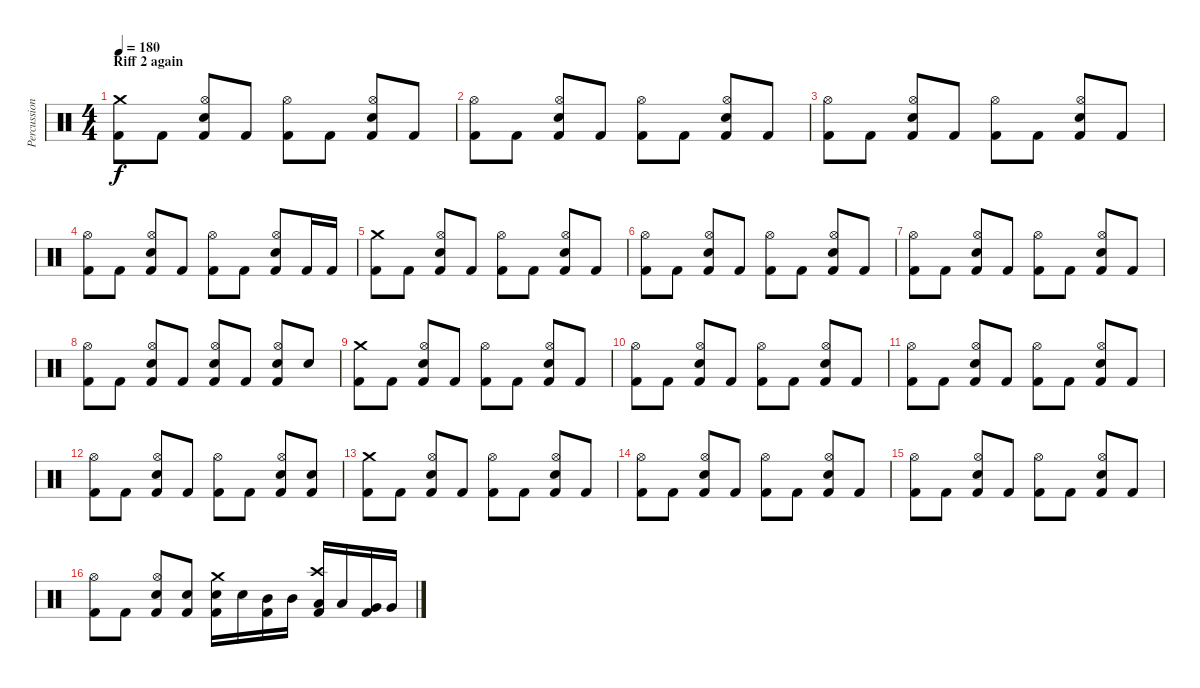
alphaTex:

\track ("Percussion" "Percussion") {instrument percussion}
\staff {score}
\articulation defaults
\ts (4 4)
\section ("" "Riff 2 again")
\tempo 180
\clef neutral
\ks c
("Crash medium (hit)" "Kick (hit) 2").8{dy f} "Kick (hit) 2".8 ("Kick (hit) 2" "Hi-Hat (open)" "Snare (hit) 2").8 "Kick (hit) 2".8 ("Hi-Hat (open)" "Kick (hit) 2").8 "Kick (hit) 2".8 ("Kick (hit) 2" "Hi-Hat (open)" "Snare (hit) 2").8 "Kick (hit) 2".8 |
("Hi-Hat (open)" "Kick (hit) 2").8 "Kick (hit) 2".8 ("Kick (hit) 2" "Hi-Hat (open)" "Snare (hit) 2").8 "Kick (hit) 2".8 ("Hi-Hat (open)" "Kick (hit) 2").8 "Kick (hit) 2".8 ("Kick (hit) 2" "Hi-Hat (open)" "Snare (hit) 2").8 "Kick (hit) 2".8 |
("Hi-Hat (open)" "Kick (hit) 2").8 "Kick (hit) 2".8 ("Kick (hit) 2" "Hi-Hat (open)" "Snare (hit) 2").8 "Kick (hit) 2".8 ("Hi-Hat (open)" "Kick (hit) 2").8 "Kick (hit) 2".8 ("Kick (hit) 2" "Hi-Hat (open)" "Snare (hit) 2").8 "Kick (hit) 2".8 |
("Hi-Hat (open)" "Kick (hit) 2").8 "Kick (hit) 2".8 ("Kick (hit) 2" "Hi-Hat (open)" "Snare (hit) 2").8 "Kick (hit) 2".8 ("Hi-Hat (open)" "Kick (hit) 2").8 "Kick (hit) 2".8 ("Kick (hit) 2" "Hi-Hat (open)" "Snare (hit) 2").8 "Kick (hit) 2".16 "Kick (hit) 2".16 |
("Crash medium (hit)" "Kick (hit) 2").8 "Kick (hit) 2".8 ("Kick (hit) 2" "Hi-Hat (open)" "Snare (hit) 2").8 "Kick (hit) 2".8 ("Hi-Hat (open)" "Kick (hit) 2").8 "Kick (hit) 2".8 ("Kick (hit) 2" "Hi-Hat (open)" "Snare (hit) 2").8 "Kick (hit) 2".8 |
("Hi-Hat (open)" "Kick (hit) 2").8 "Kick (hit) 2".8 ("Kick (hit) 2" "Hi-Hat (open)" "Snare (hit) 2").8 "Kick (hit) 2".8 ("Hi-Hat (open)" "Kick (hit) 2").8 "Kick (hit) 2".8 ("Kick (hit) 2" "Hi-Hat (open)" "Snare (hit) 2").8 "Kick (hit) 2".8 |
("Hi-Hat (open)" "Kick (hit) 2").8 "Kick (hit) 2".8 ("Kick (hit) 2" "Hi-Hat (open)" "Snare (hit) 2").8 "Kick (hit) 2".8 ("Hi-Hat (open)" "Kick (hit) 2").8 "Kick (hit) 2".8 ("Kick (hit) 2" "Hi-Hat (open)" "Snare (hit) 2").8 "Kick (hit) 2".8 |
("Hi-Hat (open)" "Kick (hit) 2").8 "Kick (hit) 2".8 ("Kick (hit) 2" "Hi-Hat (open)" "Snare (hit) 2").8 "Kick (hit) 2".8 ("Kick (hit) 2" "Hi-Hat (open)" "Snare (hit) 2").8 "Kick (hit) 2".8 ("Kick (hit) 2" "Hi-Hat (open)" "Snare (hit) 2").8 "Snare (hit) 2".8 |
("Crash medium (hit)" "Kick (hit) 2").8 "Kick (hit) 2".8 ("Kick (hit) 2" "Hi-Hat (open)" "Snare (hit) 2").8 "Kick (hit) 2".8 ("Hi-Hat (open)" "Kick (hit) 2").8 "Kick (hit) 2".8 ("Kick (hit) 2" "Hi-Hat (open)" "Snare (hit) 2").8 "Kick (hit) 2".8 |
("Hi-Hat (open)" "Kick (hit) 2").8 "Kick (hit) 2".8 ("Kick (hit) 2" "Hi-Hat (open)" "Snare (hit) 2").8 "Kick (hit) 2".8 ("Hi-Hat (open)" "Kick (hit) 2").8 "Kick (hit) 2".8 ("Kick (hit) 2" "Hi-Hat (open)" "Snare (hit) 2").8 "Kick (hit) 2".8 |
("Hi-Hat (open)" "Kick (hit) 2").8 "Kick (hit) 2".8 ("Kick (hit) 2" "Hi-Hat (open)" "Snare (hit) 2").8 "Kick (hit) 2".8 ("Hi-Hat (open)" "Kick (hit) 2").8 "Kick (hit) 2".8 ("Kick (hit) 2" "Hi-Hat (open)" "Snare (hit) 2").8 "Kick (hit) 2".8 |
("Hi-Hat (open)" "Kick (hit) 2").8 "Kick (hit) 2".8 ("Kick (hit) 2" "Hi-Hat (open)" "Snare (hit) 2").8 "Kick (hit) 2".8 ("Hi-Hat (open)" "Kick (hit) 2").8 "Kick (hit) 2".8 ("Kick (hit) 2" "Hi-Hat (open)" "Snare (hit) 2").8 ("Kick (hit) 2" "Snare (hit) 2").8 |
("Crash medium (hit)" "Kick (hit) 2").8 "Kick (hit) 2".8 ("Kick (hit) 2" "Hi-Hat (open)" "Snare (hit) 2").8 "Kick (hit) 2".8 ("Hi-Hat (open)" "Kick (hit) 2").8 "Kick (hit) 2".8 ("Kick (hit) 2" "Hi-Hat (open)" "Snare (hit) 2").8 "Kick (hit) 2".8 |
("Hi-Hat (open)" "Kick (hit) 2").8 "Kick (hit) 2".8 ("Kick (hit) 2" "Hi-Hat (open)" "Snare (hit) 2").8 "Kick (hit) 2".8 ("Hi-Hat (open)" "Kick (hit) 2").8 "Kick (hit) 2".8 ("Kick (hit) 2" "Hi-Hat (open)" "Snare (hit) 2").8 "Kick (hit) 2".8 |
("Hi-Hat (open)" "Kick (hit) 2").8 "Kick (hit) 2".8 ("Kick (hit) 2" "Hi-Hat (open)" "Snare (hit) 2").8 "Kick (hit) 2".8 ("Hi-Hat (open)" "Kick (hit) 2").8 "Kick (hit) 2".8 ("Kick (hit) 2" "Hi-Hat (open)" "Snare (hit) 2").8 "Kick (hit) 2".8 |
("Hi-Hat (open)" "Kick (hit) 2").8 "Kick (hit) 2".8 ("Kick (hit) 2" "Hi-Hat (open)" "Snare (hit) 2").8 ("Kick (hit) 2" "Snare (hit) 2").8 ("Kick (hit) 2" "Crash medium (hit)" "Snare (hit) 2").16 "Snare (hit) 2".16 ("Kick (hit) 2" "Mid Tom (hit)").16 "Mid Tom (hit)".16 ("Kick (hit) 2" "Crash high (hit)" "Low Tom (hit)").16 "Low Tom (hit)".16 ("Kick (hit) 2" "Very Low Tom (hit)").16 "Very Low Tom (hit)".16
